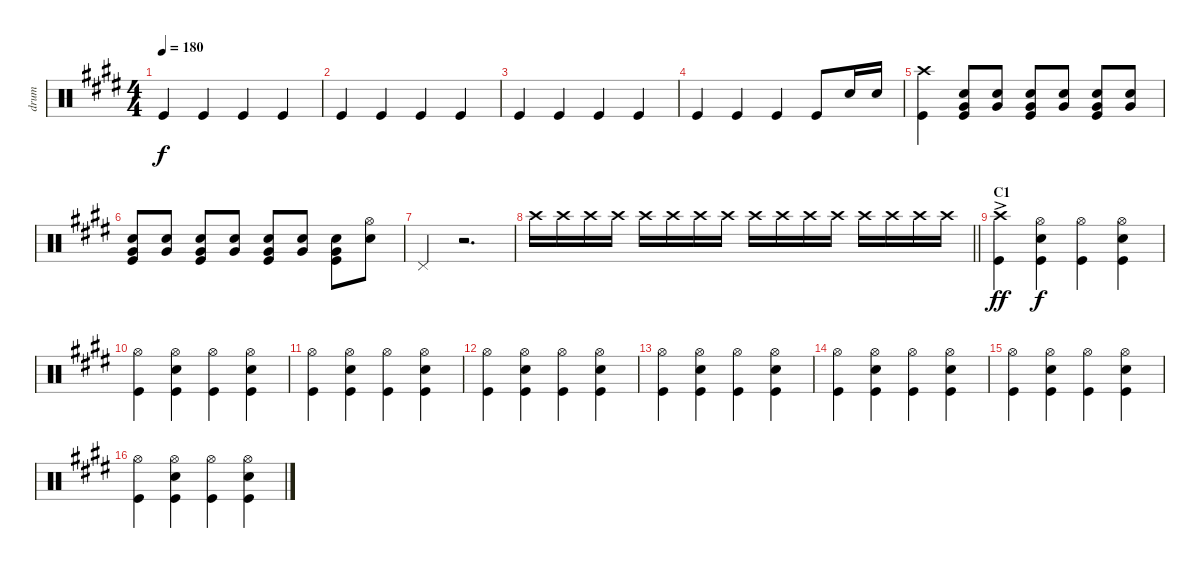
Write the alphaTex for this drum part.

\track ("drum" "drum") {instrument percussion}
\staff {score}
\articulation defaults
\ts (4 4)
\tempo 180
\clef neutral
\ks e "Kick (hit)".4{dy f} "Kick (hit)".4 "Kick (hit)".4 "Kick (hit)".4
|
"Kick (hit)".4 "Kick (hit)".4 "Kick (hit)".4 "Kick (hit)".4 |
"Kick (hit)".4 "Kick (hit)".4 "Kick (hit)".4 "Kick (hit)".4 |
"Kick (hit)".4 "Kick (hit)".4 "Kick (hit)".4 "Kick (hit)".8 "Snare (hit) 2".16 "Snare (hit) 2".16 |
("Crash high (hit)" "Kick (hit)").4 ("Snare (hit) 2" "Very Low Tom (hit)" "Kick (hit)").8 ("Snare (hit) 2" "Very Low Tom (hit)").8 ("Snare (hit) 2" "Very Low Tom (hit)" "Kick (hit)").8 ("Snare (hit) 2" "Very Low Tom (hit)").8 ("Snare (hit) 2" "Very Low Tom (hit)" "Kick (hit)").8 ("Snare (hit) 2" "Very Low Tom (hit)").8 |
("Snare (hit) 2" "Very Low Tom (hit)" "Kick (hit)").8 ("Snare (hit) 2" "Very Low Tom (hit)").8 ("Snare (hit) 2" "Very Low Tom (hit)" "Kick (hit)").8 ("Snare (hit) 2" "Very Low Tom (hit)").8 ("Snare (hit) 2" "Very Low Tom (hit)" "Kick (hit)").8 ("Snare (hit) 2" "Very Low Tom (hit)").8 ("Snare (hit) 2" "Very Low Tom (hit)" "Kick (hit)").8 ("Hi-Hat (open)" "Snare (hit) 2").8 |
"Pedal Hi-Hat (hit)".4 r.2{d volume 8} |
\barLineRight lightlight "Crash high (hit)".16{volume 15} "Crash high (hit)".16 "Crash high (hit)".16 "Crash high (hit)".16 "Crash high (hit)".16 "Crash high (hit)".16 "Crash high (hit)".16 "Crash high (hit)".16 "Crash high (hit)".16 "Crash high (hit)".16 "Crash high (hit)".16 "Crash high (hit)".16 "Crash high (hit)".16 "Crash high (hit)".16 "Crash high (hit)".16 "Crash high (hit)".16
|
\section ("" "C1")
("Crash high (hit)"{ac} "Kick (hit)").4{dy ff} ("Hi-Hat (open)" "Snare (hit) 2" "Kick (hit)").4{dy f} ("Hi-Hat (open)" "Kick (hit)").4 ("Hi-Hat (open)" "Snare (hit) 2" "Kick (hit)").4 |
("Hi-Hat (open)" "Kick (hit)").4 ("Hi-Hat (open)" "Snare (hit) 2" "Kick (hit)").4 ("Hi-Hat (open)" "Kick (hit)").4 ("Hi-Hat (open)" "Snare (hit) 2" "Kick (hit)").4 |
("Hi-Hat (open)" "Kick (hit)").4 ("Hi-Hat (open)" "Snare (hit) 2" "Kick (hit)").4 ("Hi-Hat (open)" "Kick (hit)").4 ("Hi-Hat (open)" "Snare (hit) 2" "Kick (hit)").4 |
("Hi-Hat (open)" "Kick (hit)").4 ("Hi-Hat (open)" "Snare (hit) 2" "Kick (hit)").4 ("Hi-Hat (open)" "Kick (hit)").4 ("Hi-Hat (open)" "Snare (hit) 2" "Kick (hit)").4 |
("Hi-Hat (open)" "Kick (hit)").4 ("Hi-Hat (open)" "Snare (hit) 2" "Kick (hit)").4 ("Hi-Hat (open)" "Kick (hit)").4 ("Hi-Hat (open)" "Snare (hit) 2" "Kick (hit)").4 |
("Hi-Hat (open)" "Kick (hit)").4 ("Hi-Hat (open)" "Snare (hit) 2" "Kick (hit)").4 ("Hi-Hat (open)" "Kick (hit)").4 ("Hi-Hat (open)" "Snare (hit) 2" "Kick (hit)").4 |
("Hi-Hat (open)" "Kick (hit)").4 ("Hi-Hat (open)" "Snare (hit) 2" "Kick (hit)").4 ("Hi-Hat (open)" "Kick (hit)").4 ("Hi-Hat (open)" "Snare (hit) 2" "Kick (hit)").4 |
("Hi-Hat (open)" "Kick (hit)").4 ("Hi-Hat (open)" "Snare (hit) 2" "Kick (hit)").4 ("Hi-Hat (open)" "Kick (hit)").4 ("Hi-Hat (open)" "Snare (hit) 2" "Kick (hit)").4
